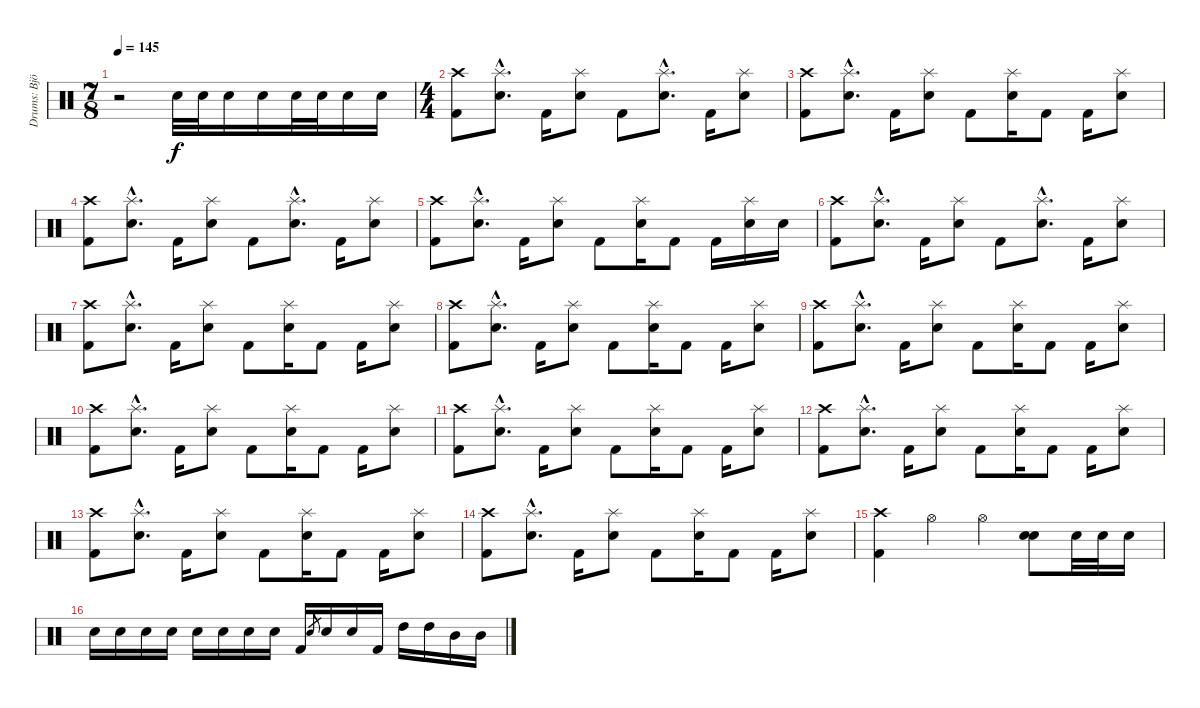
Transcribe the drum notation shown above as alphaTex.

\track ("Drums: Björn Fryklund" "Drums: Bjö") {instrument percussion}
\staff {score}
\articulation defaults
\ts (7 8)
\tempo 145
\clef neutral
\ks c
r.2{dy f} "Snare (hit) 2".32 "Snare (hit) 2".32 "Snare (hit) 2".16 "Snare (hit) 2".16 "Snare (hit) 2".32 "Snare (hit) 2".32 "Snare (hit) 2".16 "Snare (hit) 2".16 |
\ts (4 4)
("Crash high (hit)" "Kick (hit) 2").8 ("Splash (hit)"{hac} "Snare (hit) 2"{hac}).8{d} "Kick (hit) 2".16 ("Splash (hit)" "Snare (hit) 2").8 "Kick (hit) 2".8 ("Splash (hit)"{hac} "Snare (hit) 2"{hac}).8{d} "Kick (hit) 2".16 ("Splash (hit)" "Snare (hit) 2").8 |
("Crash high (hit)" "Kick (hit) 2").8 ("Splash (hit)"{hac} "Snare (hit) 2"{hac}).8{d} "Kick (hit) 2".16 ("Splash (hit)" "Snare (hit) 2").8 "Kick (hit) 2".8 ("Splash (hit)" "Snare (hit) 2").16 "Kick (hit) 2".8 "Kick (hit) 2".16 ("Splash (hit)" "Snare (hit) 2").8 |
("Crash high (hit)" "Kick (hit) 2").8 ("Splash (hit)"{hac} "Snare (hit) 2"{hac}).8{d} "Kick (hit) 2".16 ("Splash (hit)" "Snare (hit) 2").8 "Kick (hit) 2".8 ("Splash (hit)"{hac} "Snare (hit) 2"{hac}).8{d} "Kick (hit) 2".16 ("Splash (hit)" "Snare (hit) 2").8 |
("Crash high (hit)" "Kick (hit) 2").8 ("Splash (hit)"{hac} "Snare (hit) 2"{hac}).8{d} "Kick (hit) 2".16 ("Splash (hit)" "Snare (hit) 2").8 "Kick (hit) 2".8 ("Splash (hit)" "Snare (hit) 2").16 "Kick (hit) 2".8 "Kick (hit) 2".16 ("Splash (hit)" "Snare (hit) 2").16 "Snare (hit) 2".16 |
("Crash high (hit)" "Kick (hit) 2").8 ("Splash (hit)"{hac} "Snare (hit) 2"{hac}).8{d} "Kick (hit) 2".16 ("Splash (hit)" "Snare (hit) 2").8 "Kick (hit) 2".8 ("Splash (hit)"{hac} "Snare (hit) 2"{hac}).8{d} "Kick (hit) 2".16 ("Splash (hit)" "Snare (hit) 2").8 |
("Crash high (hit)" "Kick (hit) 2").8 ("Splash (hit)"{hac} "Snare (hit) 2"{hac}).8{d} "Kick (hit) 2".16 ("Splash (hit)" "Snare (hit) 2").8 "Kick (hit) 2".8 ("Splash (hit)" "Snare (hit) 2").16 "Kick (hit) 2".8 "Kick (hit) 2".16 ("Splash (hit)" "Snare (hit) 2").8 |
("Crash high (hit)" "Kick (hit) 2").8 ("Splash (hit)"{hac} "Snare (hit) 2"{hac}).8{d} "Kick (hit) 2".16 ("Splash (hit)" "Snare (hit) 2").8 "Kick (hit) 2".8 ("Splash (hit)" "Snare (hit) 2").16 "Kick (hit) 2".8 "Kick (hit) 2".16 ("Splash (hit)" "Snare (hit) 2").8 |
("Crash high (hit)" "Kick (hit) 2").8 ("Splash (hit)"{hac} "Snare (hit) 2"{hac}).8{d} "Kick (hit) 2".16 ("Splash (hit)" "Snare (hit) 2").8 "Kick (hit) 2".8 ("Splash (hit)" "Snare (hit) 2").16 "Kick (hit) 2".8 "Kick (hit) 2".16 ("Splash (hit)" "Snare (hit) 2").8 |
("Crash high (hit)" "Kick (hit) 2").8 ("Splash (hit)"{hac} "Snare (hit) 2"{hac}).8{d} "Kick (hit) 2".16 ("Splash (hit)" "Snare (hit) 2").8 "Kick (hit) 2".8 ("Splash (hit)" "Snare (hit) 2").16 "Kick (hit) 2".8 "Kick (hit) 2".16 ("Splash (hit)" "Snare (hit) 2").8 |
("Crash high (hit)" "Kick (hit) 2").8 ("Splash (hit)"{hac} "Snare (hit) 2"{hac}).8{d} "Kick (hit) 2".16 ("Splash (hit)" "Snare (hit) 2").8 "Kick (hit) 2".8 ("Splash (hit)" "Snare (hit) 2").16 "Kick (hit) 2".8 "Kick (hit) 2".16 ("Splash (hit)" "Snare (hit) 2").8 |
("Crash high (hit)" "Kick (hit) 2").8 ("Splash (hit)"{hac} "Snare (hit) 2"{hac}).8{d} "Kick (hit) 2".16 ("Splash (hit)" "Snare (hit) 2").8 "Kick (hit) 2".8 ("Splash (hit)" "Snare (hit) 2").16 "Kick (hit) 2".8 "Kick (hit) 2".16 ("Splash (hit)" "Snare (hit) 2").8 |
("Crash high (hit)" "Kick (hit) 2").8 ("Splash (hit)"{hac} "Snare (hit) 2"{hac}).8{d} "Kick (hit) 2".16 ("Splash (hit)" "Snare (hit) 2").8 "Kick (hit) 2".8 ("Splash (hit)" "Snare (hit) 2").16 "Kick (hit) 2".8 "Kick (hit) 2".16 ("Splash (hit)" "Snare (hit) 2").8 |
("Crash high (hit)" "Kick (hit) 2").8 ("Splash (hit)"{hac} "Snare (hit) 2"{hac}).8{d} "Kick (hit) 2".16 ("Splash (hit)" "Snare (hit) 2").8 "Kick (hit) 2".8 ("Splash (hit)" "Snare (hit) 2").16 "Kick (hit) 2".8 "Kick (hit) 2".16 ("Splash (hit)" "Snare (hit) 2").8 |
("Crash high (hit)" "Kick (hit) 2").4 "Hi-Hat (open)".4 "Hi-Hat (open)".4 ("Snare (hit) 2" "Snare (hit) 2").8 "Snare (hit) 2".32 "Snare (hit) 2".32 "Snare (hit) 2".16 |
"Snare (hit) 2".16 "Snare (hit) 2".16 "Snare (hit) 2".16 "Snare (hit) 2".16 "Snare (hit) 2".16 "Snare (hit) 2".16 "Snare (hit) 2".16 "Snare (hit) 2".16 "Kick (hit) 2".16 "Snare (hit) 2".8{gr} "Snare (hit) 2".16 "Snare (hit) 2".16 "Kick (hit) 2".16 "High Tom (hit)".16 "High Tom (hit)".16 "Mid Tom (hit)".16 "Mid Tom (hit)".16
